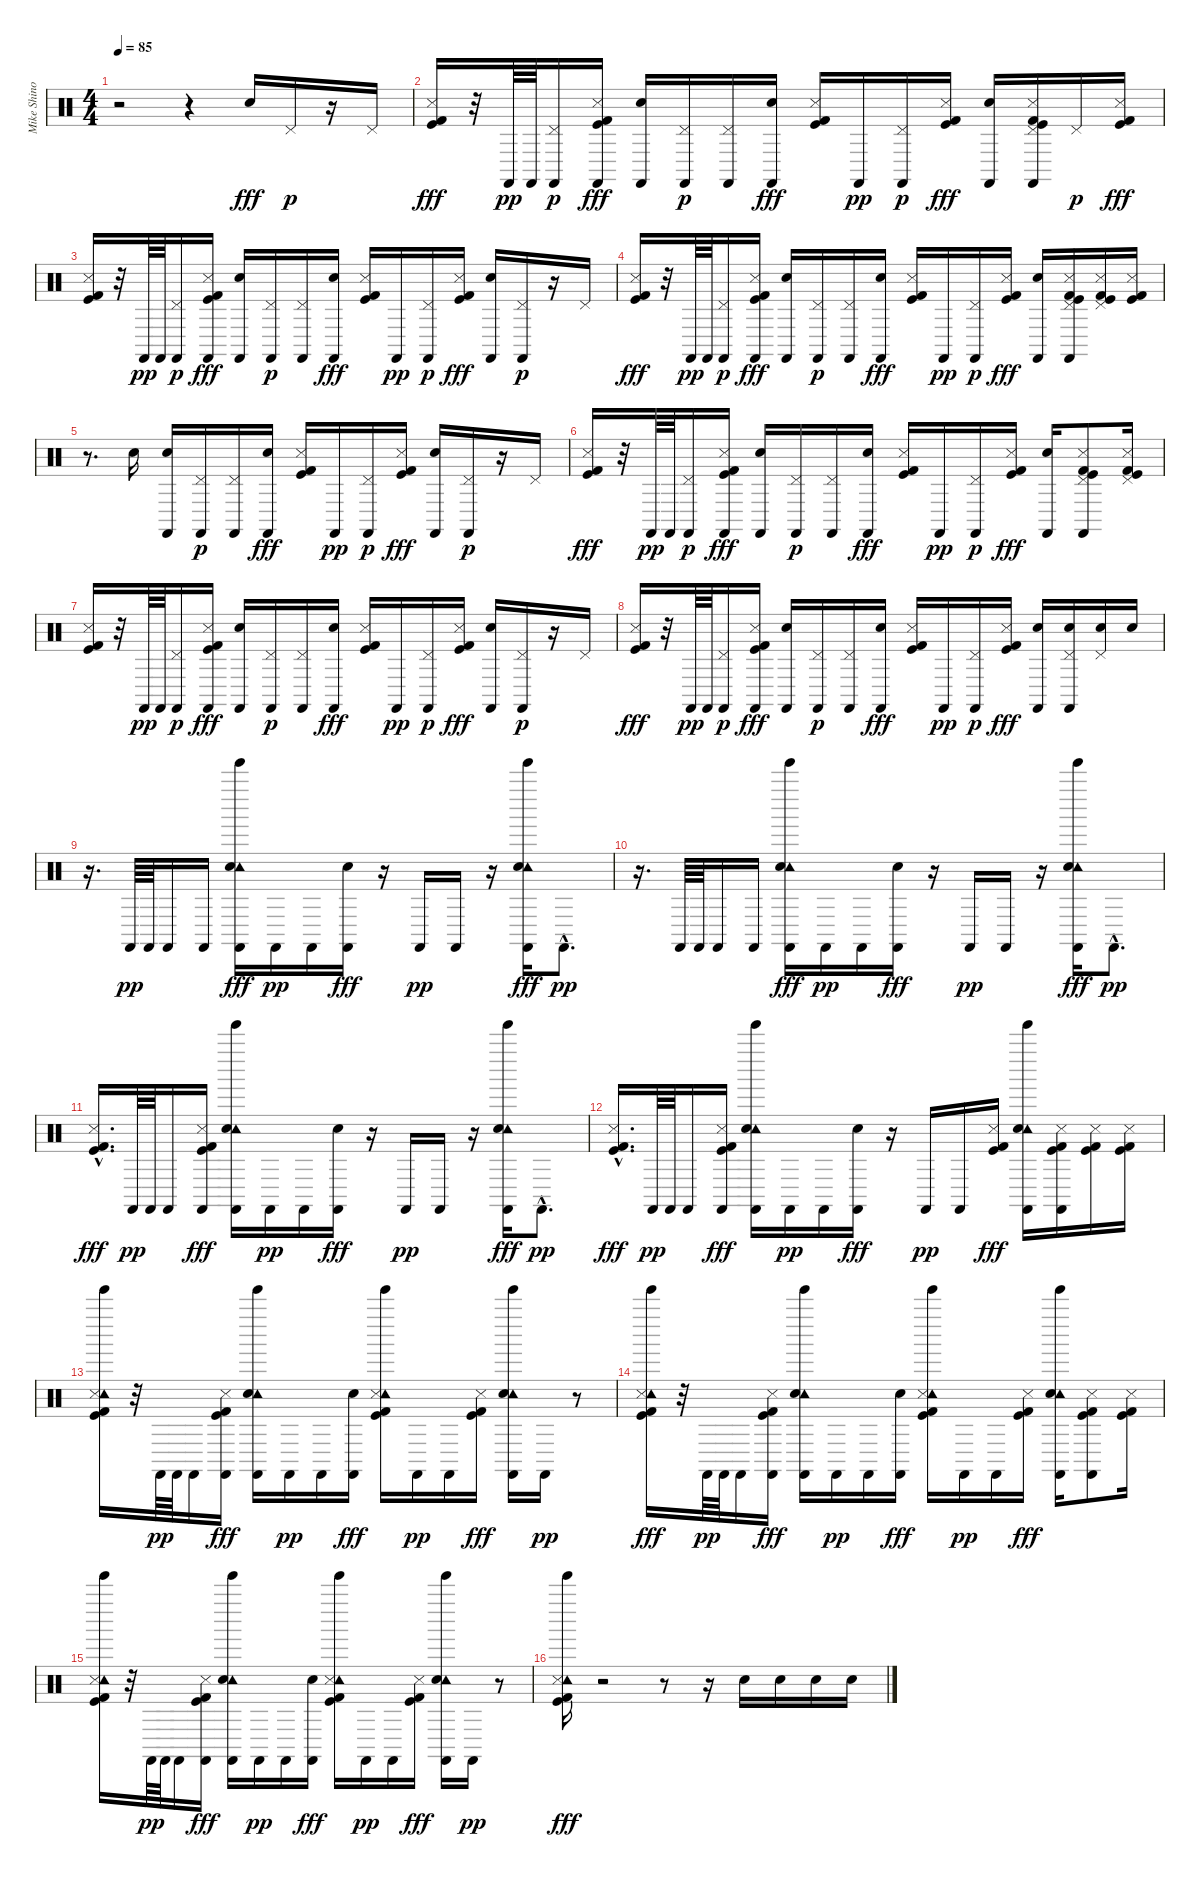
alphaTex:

\track ("Mike Shinoda - Percussion" "Mike Shino") {instrument percussion}
\staff {score}
\articulation defaults
\ts (4 4)
\tempo 85
\clef neutral
\ks c
r.2{dy fff} r.4 "Hand Clap (hit)".16 "Pedal Hi-Hat (hit)".16{dy p} r.16 "Pedal Hi-Hat (hit)".16 |
("Snare (side stick) 3" "Kick (hit)" "Kick (hit) 2").16{dy fff} r.32 "Castanets (hit)".64{dy pp} "Castanets (hit)".64 ("Castanets (hit)" "Pedal Hi-Hat (hit)").16{dy p} ("Castanets (hit)" "Snare (side stick) 3" "Kick (hit)" "Kick (hit) 2").16{dy fff} ("Castanets (hit)" "Hand Clap (hit)").16 ("Castanets (hit)" "Pedal Hi-Hat (hit)").16{dy p} ("Castanets (hit)" "Pedal Hi-Hat (hit)").16 ("Castanets (hit)" "Hand Clap (hit)").16{dy fff} ("Snare (side stick) 3" "Kick (hit)" "Kick (hit) 2").16 "Castanets (hit)".16{dy pp} ("Castanets (hit)" "Pedal Hi-Hat (hit)").16{dy p} ("Snare (side stick) 3" "Kick (hit)" "Kick (hit) 2").16{dy fff} ("Castanets (hit)" "Hand Clap (hit)").16 ("Castanets (hit)" "Pedal Hi-Hat (hit)" "Snare (side stick) 3" "Kick (hit)" "Kick (hit) 2").16 "Pedal Hi-Hat (hit)".16{dy p} ("Snare (side stick) 3" "Kick (hit)" "Kick (hit) 2").16{dy fff} |
("Snare (side stick) 3" "Kick (hit)" "Kick (hit) 2").16 r.32 "Castanets (hit)".64{dy pp} "Castanets (hit)".64 ("Castanets (hit)" "Pedal Hi-Hat (hit)").16{dy p} ("Castanets (hit)" "Snare (side stick) 3" "Kick (hit)" "Kick (hit) 2").16{dy fff} ("Castanets (hit)" "Hand Clap (hit)").16 ("Castanets (hit)" "Pedal Hi-Hat (hit)").16{dy p} ("Castanets (hit)" "Pedal Hi-Hat (hit)").16 ("Castanets (hit)" "Hand Clap (hit)").16{dy fff} ("Snare (side stick) 3" "Kick (hit)" "Kick (hit) 2").16 "Castanets (hit)".16{dy pp} ("Castanets (hit)" "Pedal Hi-Hat (hit)").16{dy p} ("Snare (side stick) 3" "Kick (hit)" "Kick (hit) 2").16{dy fff} ("Castanets (hit)" "Hand Clap (hit)").16 ("Castanets (hit)" "Pedal Hi-Hat (hit)").16{dy p} r.16 "Pedal Hi-Hat (hit)".16 |
("Snare (side stick) 3" "Kick (hit)" "Kick (hit) 2").16{dy fff} r.32 "Castanets (hit)".64{dy pp} "Castanets (hit)".64 ("Castanets (hit)" "Pedal Hi-Hat (hit)").16{dy p} ("Castanets (hit)" "Snare (side stick) 3" "Kick (hit)" "Kick (hit) 2").16{dy fff} ("Castanets (hit)" "Hand Clap (hit)").16 ("Castanets (hit)" "Pedal Hi-Hat (hit)").16{dy p} ("Castanets (hit)" "Pedal Hi-Hat (hit)").16 ("Castanets (hit)" "Hand Clap (hit)").16{dy fff} ("Snare (side stick) 3" "Kick (hit)" "Kick (hit) 2").16 "Castanets (hit)".16{dy pp} ("Castanets (hit)" "Pedal Hi-Hat (hit)").16{dy p} ("Snare (side stick) 3" "Kick (hit)" "Kick (hit) 2").16{dy fff} ("Castanets (hit)" "Hand Clap (hit)").16 ("Castanets (hit)" "Pedal Hi-Hat (hit)" "Snare (side stick) 3" "Kick (hit)" "Kick (hit) 2").16 ("Pedal Hi-Hat (hit)" "Snare (side stick) 3" "Kick (hit)" "Kick (hit) 2").16 ("Snare (side stick) 3" "Kick (hit)" "Kick (hit) 2").16 |
r.8{d} "Hand Clap (hit)".16 ("Castanets (hit)" "Hand Clap (hit)").16 ("Castanets (hit)" "Pedal Hi-Hat (hit)").16{dy p} ("Castanets (hit)" "Pedal Hi-Hat (hit)").16 ("Castanets (hit)" "Hand Clap (hit)").16{dy fff} ("Snare (side stick) 3" "Kick (hit)" "Kick (hit) 2").16 "Castanets (hit)".16{dy pp} ("Castanets (hit)" "Pedal Hi-Hat (hit)").16{dy p} ("Snare (side stick) 3" "Kick (hit)" "Kick (hit) 2").16{dy fff} ("Castanets (hit)" "Hand Clap (hit)").16 ("Castanets (hit)" "Pedal Hi-Hat (hit)").16{dy p} r.16 "Pedal Hi-Hat (hit)".16 |
("Snare (side stick) 3" "Kick (hit)" "Kick (hit) 2").16{dy fff} r.32 "Castanets (hit)".64{dy pp} "Castanets (hit)".64 ("Castanets (hit)" "Pedal Hi-Hat (hit)").16{dy p} ("Castanets (hit)" "Snare (side stick) 3" "Kick (hit)" "Kick (hit) 2").16{dy fff} ("Castanets (hit)" "Hand Clap (hit)").16 ("Castanets (hit)" "Pedal Hi-Hat (hit)").16{dy p} ("Castanets (hit)" "Pedal Hi-Hat (hit)").16 ("Castanets (hit)" "Hand Clap (hit)").16{dy fff} ("Snare (side stick) 3" "Kick (hit)" "Kick (hit) 2").16 "Castanets (hit)".16{dy pp} ("Castanets (hit)" "Pedal Hi-Hat (hit)").16{dy p} ("Snare (side stick) 3" "Kick (hit)" "Kick (hit) 2").16{dy fff} ("Castanets (hit)" "Hand Clap (hit)").16 ("Castanets (hit)" "Pedal Hi-Hat (hit)" "Snare (side stick) 3" "Kick (hit)" "Kick (hit) 2").8 ("Pedal Hi-Hat (hit)" "Snare (side stick) 3" "Kick (hit)" "Kick (hit) 2").16 |
("Snare (side stick) 3" "Kick (hit)" "Kick (hit) 2").16 r.32 "Castanets (hit)".64{dy pp} "Castanets (hit)".64 ("Castanets (hit)" "Pedal Hi-Hat (hit)").16{dy p} ("Castanets (hit)" "Snare (side stick) 3" "Kick (hit)" "Kick (hit) 2").16{dy fff} ("Castanets (hit)" "Hand Clap (hit)").16 ("Castanets (hit)" "Pedal Hi-Hat (hit)").16{dy p} ("Castanets (hit)" "Pedal Hi-Hat (hit)").16 ("Castanets (hit)" "Hand Clap (hit)").16{dy fff} ("Snare (side stick) 3" "Kick (hit)" "Kick (hit) 2").16 "Castanets (hit)".16{dy pp} ("Castanets (hit)" "Pedal Hi-Hat (hit)").16{dy p} ("Snare (side stick) 3" "Kick (hit)" "Kick (hit) 2").16{dy fff} ("Castanets (hit)" "Hand Clap (hit)").16 ("Castanets (hit)" "Pedal Hi-Hat (hit)").16{dy p} r.16 "Pedal Hi-Hat (hit)".16 |
("Snare (side stick) 3" "Kick (hit)" "Kick (hit) 2").16{dy fff} r.32 "Castanets (hit)".64{dy pp} "Castanets (hit)".64 ("Castanets (hit)" "Pedal Hi-Hat (hit)").16{dy p} ("Castanets (hit)" "Snare (side stick) 3" "Kick (hit)" "Kick (hit) 2").16{dy fff} ("Castanets (hit)" "Hand Clap (hit)").16 ("Castanets (hit)" "Pedal Hi-Hat (hit)").16{dy p} ("Castanets (hit)" "Pedal Hi-Hat (hit)").16 ("Castanets (hit)" "Hand Clap (hit)").16{dy fff} ("Snare (side stick) 3" "Kick (hit)" "Kick (hit) 2").16 "Castanets (hit)".16{dy pp} ("Castanets (hit)" "Pedal Hi-Hat (hit)").16{dy p} ("Snare (side stick) 3" "Kick (hit)" "Kick (hit) 2").16{dy fff} ("Castanets (hit)" "Hand Clap (hit)").16 ("Castanets (hit)" "Pedal Hi-Hat (hit)" "Hand Clap (hit)").16 ("Pedal Hi-Hat (hit)" "Hand Clap (hit)").16 "Hand Clap (hit)".16 |
r.16{d} "Castanets (hit)".64{dy pp} "Castanets (hit)".64 "Castanets (hit)".16 "Castanets (hit)".16 ("Castanets (hit)" "Tambourine (hit)" "Hand Clap (hit)" "Tinkle Bell (hit)").16{dy fff} "Castanets (hit)".16{dy pp} "Castanets (hit)".16 ("Castanets (hit)" "Hand Clap (hit)").16{dy fff} r.16 "Castanets (hit)".16{dy pp} "Castanets (hit)".16 r.16 ("Castanets (hit)" "Tambourine (hit)" "Hand Clap (hit)" "Tinkle Bell (hit)").16{dy fff} "Castanets (hit)"{hac}.8{d dy pp} |
r.16{d} "Castanets (hit)".64 "Castanets (hit)".64 "Castanets (hit)".16 "Castanets (hit)".16 ("Castanets (hit)" "Tambourine (hit)" "Hand Clap (hit)" "Tinkle Bell (hit)").16{dy fff} "Castanets (hit)".16{dy pp} "Castanets (hit)".16 ("Castanets (hit)" "Hand Clap (hit)").16{dy fff} r.16 "Castanets (hit)".16{dy pp} "Castanets (hit)".16 r.16 ("Castanets (hit)" "Tambourine (hit)" "Hand Clap (hit)" "Tinkle Bell (hit)").16{dy fff} "Castanets (hit)"{hac}.8{d dy pp} |
("Snare (side stick) 3"{hac} "Kick (hit)"{hac} "Kick (hit) 2"{hac}).16{d dy fff} "Castanets (hit)".64{dy pp} "Castanets (hit)".64 "Castanets (hit)".16 ("Castanets (hit)" "Snare (side stick) 3" "Kick (hit)" "Kick (hit) 2").16{dy fff} ("Castanets (hit)" "Tambourine (hit)" "Hand Clap (hit)" "Tinkle Bell (hit)").16 "Castanets (hit)".16{dy pp} "Castanets (hit)".16 ("Castanets (hit)" "Hand Clap (hit)").16{dy fff} r.16 "Castanets (hit)".16{dy pp} "Castanets (hit)".16 r.16 ("Castanets (hit)" "Tambourine (hit)" "Hand Clap (hit)" "Tinkle Bell (hit)").16{dy fff} "Castanets (hit)"{hac}.8{d dy pp} |
("Snare (side stick) 3"{hac} "Kick (hit)"{hac} "Kick (hit) 2"{hac}).16{d dy fff} "Castanets (hit)".64{dy pp} "Castanets (hit)".64 "Castanets (hit)".16 ("Castanets (hit)" "Snare (side stick) 3" "Kick (hit)" "Kick (hit) 2").16{dy fff} ("Castanets (hit)" "Tambourine (hit)" "Hand Clap (hit)" "Tinkle Bell (hit)").16 "Castanets (hit)".16{dy pp} "Castanets (hit)".16 ("Castanets (hit)" "Hand Clap (hit)").16{dy fff} r.16 "Castanets (hit)".16{dy pp} "Castanets (hit)".16 ("Snare (side stick) 3" "Kick (hit)" "Kick (hit) 2").16{dy fff} ("Castanets (hit)" "Tambourine (hit)" "Hand Clap (hit)" "Tinkle Bell (hit)").16 ("Castanets (hit)" "Snare (side stick) 3" "Kick (hit)" "Kick (hit) 2").16 ("Snare (side stick) 3" "Kick (hit)" "Kick (hit) 2").16 ("Snare (side stick) 3" "Kick (hit)" "Kick (hit) 2").16 |
("Tambourine (hit)" "Tinkle Bell (hit)" "Snare (side stick) 3" "Kick (hit)" "Kick (hit) 2").16 r.32 "Castanets (hit)".64{dy pp} "Castanets (hit)".64 "Castanets (hit)".16 ("Castanets (hit)" "Snare (side stick) 3" "Kick (hit)" "Kick (hit) 2").16{dy fff} ("Castanets (hit)" "Tambourine (hit)" "Hand Clap (hit)" "Tinkle Bell (hit)").16 "Castanets (hit)".16{dy pp} "Castanets (hit)".16 ("Castanets (hit)" "Hand Clap (hit)").16{dy fff} ("Tambourine (hit)" "Tinkle Bell (hit)" "Snare (side stick) 3" "Kick (hit)" "Kick (hit) 2").16 "Castanets (hit)".16{dy pp} "Castanets (hit)".16 ("Snare (side stick) 3" "Kick (hit)" "Kick (hit) 2").16{dy fff} ("Castanets (hit)" "Tambourine (hit)" "Hand Clap (hit)" "Tinkle Bell (hit)").16 "Castanets (hit)".16{dy pp} r.8 |
("Tambourine (hit)" "Tinkle Bell (hit)" "Snare (side stick) 3" "Kick (hit)" "Kick (hit) 2").16{dy fff} r.32 "Castanets (hit)".64{dy pp} "Castanets (hit)".64 "Castanets (hit)".16 ("Castanets (hit)" "Snare (side stick) 3" "Kick (hit)" "Kick (hit) 2").16{dy fff} ("Castanets (hit)" "Tambourine (hit)" "Hand Clap (hit)" "Tinkle Bell (hit)").16 "Castanets (hit)".16{dy pp} "Castanets (hit)".16 ("Castanets (hit)" "Hand Clap (hit)").16{dy fff} ("Tambourine (hit)" "Tinkle Bell (hit)" "Snare (side stick) 3" "Kick (hit)" "Kick (hit) 2").16 "Castanets (hit)".16{dy pp} "Castanets (hit)".16 ("Snare (side stick) 3" "Kick (hit)" "Kick (hit) 2").16{dy fff} ("Castanets (hit)" "Tambourine (hit)" "Hand Clap (hit)" "Tinkle Bell (hit)").16 ("Castanets (hit)" "Snare (side stick) 3" "Kick (hit)" "Kick (hit) 2").8 ("Snare (side stick) 3" "Kick (hit)" "Kick (hit) 2").16 |
("Tambourine (hit)" "Tinkle Bell (hit)" "Snare (side stick) 3" "Kick (hit)" "Kick (hit) 2").16 r.32 "Castanets (hit)".64{dy pp} "Castanets (hit)".64 "Castanets (hit)".16 ("Castanets (hit)" "Snare (side stick) 3" "Kick (hit)" "Kick (hit) 2").16{dy fff} ("Castanets (hit)" "Tambourine (hit)" "Hand Clap (hit)" "Tinkle Bell (hit)").16 "Castanets (hit)".16{dy pp} "Castanets (hit)".16 ("Castanets (hit)" "Hand Clap (hit)").16{dy fff} ("Tambourine (hit)" "Tinkle Bell (hit)" "Snare (side stick) 3" "Kick (hit)" "Kick (hit) 2").16 "Castanets (hit)".16{dy pp} "Castanets (hit)".16 ("Snare (side stick) 3" "Kick (hit)" "Kick (hit) 2").16{dy fff} ("Castanets (hit)" "Tambourine (hit)" "Hand Clap (hit)" "Tinkle Bell (hit)").16 "Castanets (hit)".16{dy pp} r.8 |
("Tambourine (hit)" "Tinkle Bell (hit)" "Snare (side stick) 3" "Kick (hit)" "Kick (hit) 2").16{dy fff} r.2 r.8 r.16 "Hand Clap (hit)".16 "Hand Clap (hit)".16 "Hand Clap (hit)".16 "Hand Clap (hit)".16
